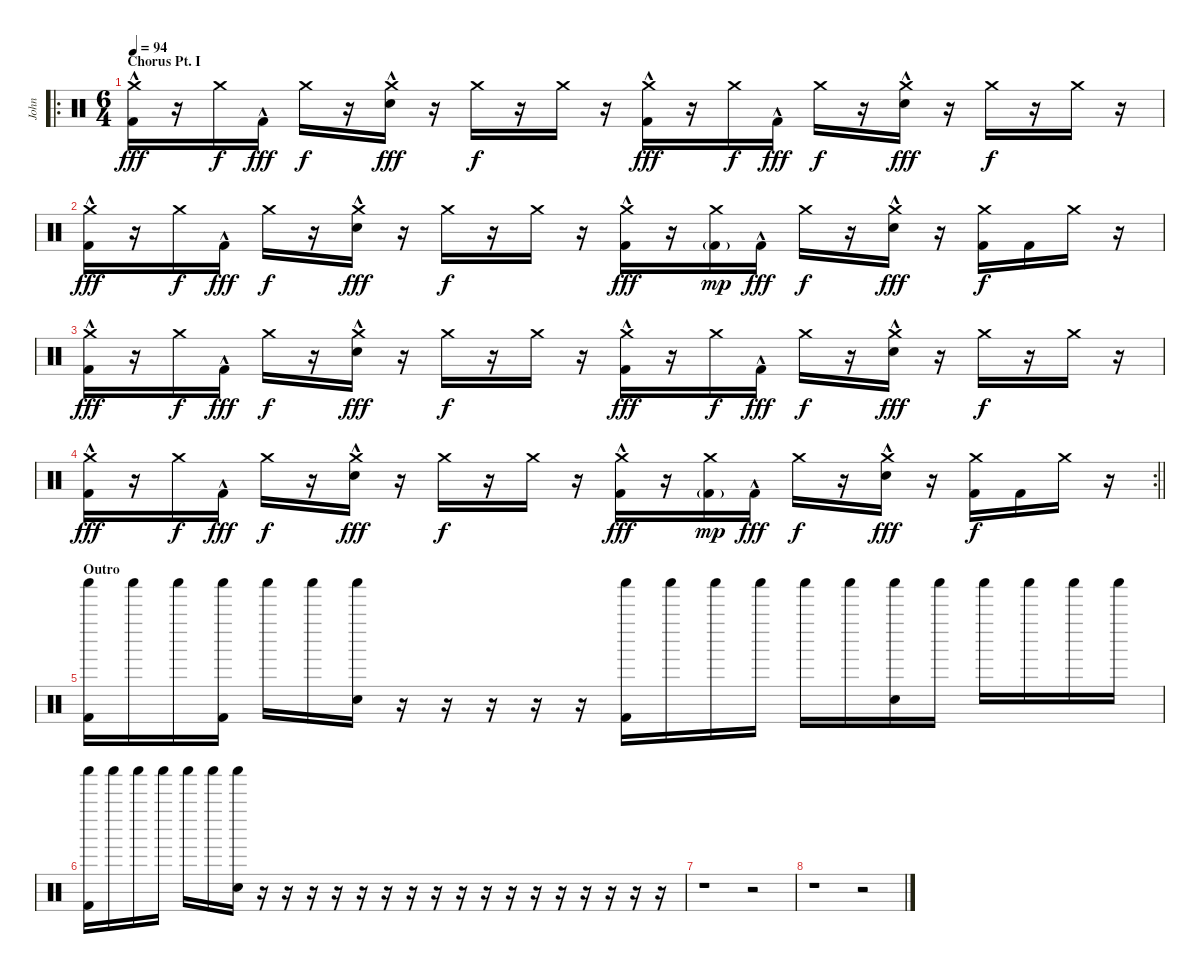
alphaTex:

\track ("John" "John") {instrument percussion}
\staff {score}
\articulation defaults
\ro
\ts (6 4)
\section ("" "Chorus Pt. I")
\tempo 94
\clef neutral
\ks c
("Crash medium (hit)" "Kick (hit) 2"{hac}).16{dy fff} r.16 "Crash medium (hit)".16{dy f} "Kick (hit) 2"{hac}.16{dy fff} "Crash medium (hit)".16{dy f} r.16 ("Crash medium (hit)" "Snare (hit) 2"{hac}).16{dy fff} r.16 "Crash medium (hit)".16{dy f} r.16 "Crash medium (hit)".16 r.16 ("Crash medium (hit)" "Kick (hit) 2"{hac}).16{dy fff} r.16 "Crash medium (hit)".16{dy f} "Kick (hit) 2"{hac}.16{dy fff} "Crash medium (hit)".16{dy f} r.16 ("Crash medium (hit)" "Snare (hit) 2"{hac}).16{dy fff} r.16 "Crash medium (hit)".16{dy f} r.16 "Crash medium (hit)".16 r.16 |
("Crash medium (hit)" "Kick (hit) 2"{hac}).16{dy fff} r.16 "Crash medium (hit)".16{dy f} "Kick (hit) 2"{hac}.16{dy fff} "Crash medium (hit)".16{dy f} r.16 ("Crash medium (hit)" "Snare (hit) 2"{hac}).16{dy fff} r.16 "Crash medium (hit)".16{dy f} r.16 "Crash medium (hit)".16 r.16 ("Crash medium (hit)" "Kick (hit) 2"{hac}).16{dy fff} r.16 ("Crash medium (hit)" "Kick (hit) 2"{g}).16{dy mp} "Kick (hit) 2"{hac}.16{dy fff} "Crash medium (hit)".16{dy f} r.16 ("Crash medium (hit)" "Snare (hit) 2"{hac}).16{dy fff} r.16 ("Crash medium (hit)" "Kick (hit) 2").16{dy f} "Kick (hit) 2".16 "Crash medium (hit)".16 r.16 |
("Crash medium (hit)" "Kick (hit) 2"{hac}).16{dy fff} r.16 "Crash medium (hit)".16{dy f} "Kick (hit) 2"{hac}.16{dy fff} "Crash medium (hit)".16{dy f} r.16 ("Crash medium (hit)" "Snare (hit) 2"{hac}).16{dy fff} r.16 "Crash medium (hit)".16{dy f} r.16 "Crash medium (hit)".16 r.16 ("Crash medium (hit)" "Kick (hit) 2"{hac}).16{dy fff} r.16 "Crash medium (hit)".16{dy f} "Kick (hit) 2"{hac}.16{dy fff} "Crash medium (hit)".16{dy f} r.16 ("Crash medium (hit)" "Snare (hit) 2"{hac}).16{dy fff} r.16 "Crash medium (hit)".16{dy f} r.16 "Crash medium (hit)".16 r.16 |
\rc 2
\barLineRight lightlight
("Crash medium (hit)" "Kick (hit) 2"{hac}).16{dy fff} r.16 "Crash medium (hit)".16{dy f} "Kick (hit) 2"{hac}.16{dy fff} "Crash medium (hit)".16{dy f} r.16 ("Crash medium (hit)" "Snare (hit) 2"{hac}).16{dy fff} r.16 "Crash medium (hit)".16{dy f} r.16 "Crash medium (hit)".16 r.16 ("Crash medium (hit)" "Kick (hit) 2"{hac}).16{dy fff} r.16 ("Crash medium (hit)" "Kick (hit) 2"{g}).16{dy mp} "Kick (hit) 2"{hac}.16{dy fff} "Crash medium (hit)".16{dy f} r.16 ("Crash medium (hit)" "Snare (hit) 2"{hac}).16{dy fff} r.16 ("Crash medium (hit)" "Kick (hit) 2").16{dy f} "Kick (hit) 2".16 "Crash medium (hit)".16 r.16 |
\section ("" "Outro")
("Shaker (hit)" "Kick (hit) 2").16 "Shaker (hit)".16 "Shaker (hit)".16 ("Shaker (hit)" "Kick (hit) 2").16 "Shaker (hit)".16 "Shaker (hit)".16 ("Shaker (hit)" "Snare (hit) 2").16 r.16 r.16 r.16 r.16 r.16 ("Shaker (hit)" "Kick (hit) 2").16 "Shaker (hit)".16 "Shaker (hit)".16 "Shaker (hit)".16 "Shaker (hit)".16 "Shaker (hit)".16 ("Shaker (hit)" "Snare (hit) 2").16 "Shaker (hit)".16 "Shaker (hit)".16 "Shaker (hit)".16 "Shaker (hit)".16 "Shaker (hit)".16 |
("Shaker (hit)" "Kick (hit) 2").16 "Shaker (hit)".16 "Shaker (hit)".16 "Shaker (hit)".16 "Shaker (hit)".16 "Shaker (hit)".16 ("Shaker (hit)" "Snare (hit) 2").16 r.16 r.16 r.16 r.16 r.16 r.16 r.16 r.16 r.16 r.16 r.16 r.16 r.16 r.16 r.16 r.16 r.16 |
r.1 r.2 |
r.1 r.2
